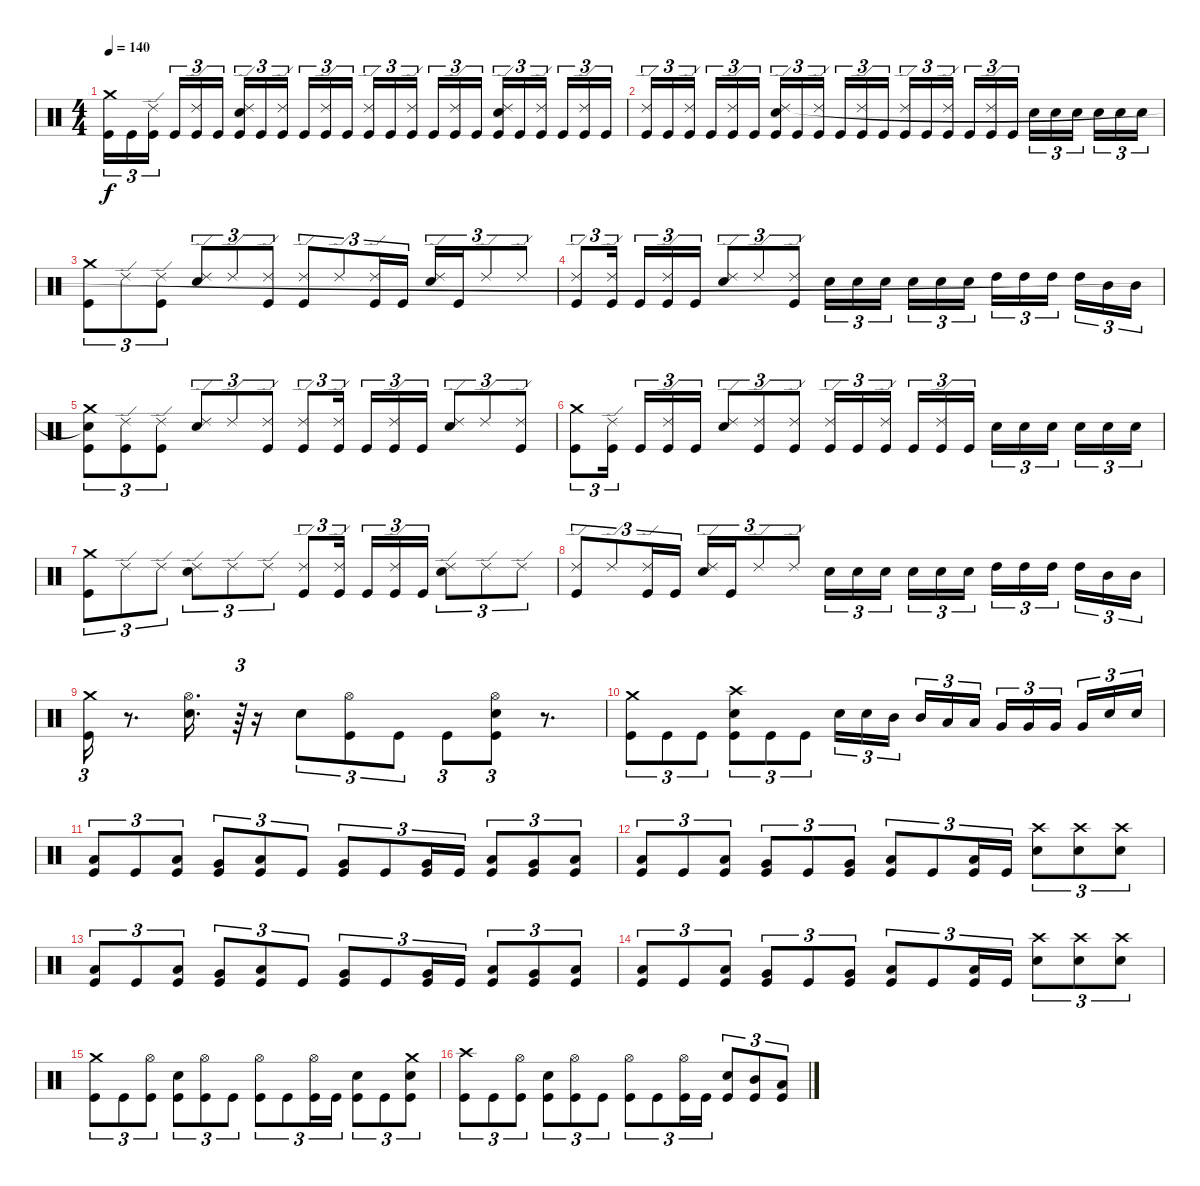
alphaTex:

\track "" {instrument percussion}
\staff {score}
\articulation defaults
\ts (4 4)
\tempo 140
\clef neutral
\ks c
("Crash medium (hit)" "Kick (hit)").16{tu (3 2) dy f} "Kick (hit)".16{tu (3 2)} ("Ride (edge) 2" "Kick (hit)").16{tu (3 2) beam splitsecondary} "Kick (hit)".16{tu (3 2)} ("Ride (edge) 2" "Kick (hit)").16{tu (3 2)} "Kick (hit)".16{tu (3 2)} ("Snare (hit) 2" "Ride (edge) 2" "Kick (hit)").16{tu (3 2)} "Kick (hit)".16{tu (3 2)} ("Ride (edge) 2" "Kick (hit)").16{tu (3 2) beam splitsecondary} "Kick (hit)".16{tu (3 2)} ("Ride (edge) 2" "Kick (hit)").16{tu (3 2)} "Kick (hit)".16{tu (3 2)} ("Ride (edge) 2" "Kick (hit)").16{tu (3 2)} "Kick (hit)".16{tu (3 2)} ("Ride (edge) 2" "Kick (hit)").16{tu (3 2) beam splitsecondary} "Kick (hit)".16{tu (3 2)} ("Ride (edge) 2" "Kick (hit)").16{tu (3 2)} "Kick (hit)".16{tu (3 2)} ("Ride (edge) 2" "Snare (hit) 2" "Kick (hit)").16{tu (3 2)} "Kick (hit)".16{tu (3 2)} ("Ride (edge) 2" "Kick (hit)").16{tu (3 2) beam splitsecondary} "Kick (hit)".16{tu (3 2)} ("Ride (edge) 2" "Kick (hit)").16{tu (3 2)} "Kick (hit)".16{tu (3 2)} |
("Kick (hit)" "Ride (edge) 2").16{tu (3 2)} "Kick (hit)".16{tu (3 2)} ("Kick (hit)" "Ride (edge) 2").16{tu (3 2) beam splitsecondary} "Kick (hit)".16{tu (3 2)} ("Kick (hit)" "Ride (edge) 2").16{tu (3 2)} "Kick (hit)".16{tu (3 2)} ("Kick (hit)" "Snare (hit) 2" "Ride (edge) 2").16{tu (3 2)} "Kick (hit)".16{tu (3 2)} ("Kick (hit)" "Ride (edge) 2").16{tu (3 2) beam splitsecondary} "Kick (hit)".16{tu (3 2)} ("Kick (hit)" "Ride (edge) 2").16{tu (3 2)} "Kick (hit)".16{tu (3 2)} ("Kick (hit)" "Ride (edge) 2").16{tu (3 2)} "Kick (hit)".16{tu (3 2)} ("Kick (hit)" "Ride (edge) 2").16{tu (3 2) beam splitsecondary} "Kick (hit)".16{tu (3 2)} ("Kick (hit)" "Ride (edge) 2").16{tu (3 2)} "Kick (hit)".16{tu (3 2)} "Snare (hit) 2".16{tu (3 2)} "Snare (hit) 2".16{tu (3 2)} "Snare (hit) 2".16{tu (3 2) beam splitsecondary} "Snare (hit) 2".16{tu (3 2)} "Snare (hit) 2".16{tu (3 2)} "Snare (hit) 2".16{tu (3 2)} |
("Kick (hit)" "Crash medium (hit)").8{tu (3 2)} "Ride (edge) 2".8{tu (3 2)} ("Kick (hit)" "Ride (edge) 2").8{tu (3 2)} ("Snare (hit) 2" "Ride (edge) 2").8{tu (3 2)} "Ride (edge) 2".8{tu (3 2)} ("Kick (hit)" "Ride (edge) 2").8{tu (3 2)} ("Kick (hit)" "Ride (edge) 2").8{tu (3 2)} "Ride (edge) 2".8{tu (3 2)} ("Kick (hit)" "Ride (edge) 2").16{tu (3 2)} "Kick (hit)".16{tu (3 2)} ("Ride (edge) 2" "Snare (hit) 2").16{tu (3 2)} "Kick (hit)".16{tu (3 2)} "Ride (edge) 2".8{tu (3 2)} "Ride (edge) 2".8{tu (3 2)} |
("Kick (hit)" "Ride (edge) 2").8{tu (3 2)} ("Kick (hit)" "Ride (edge) 2").16{tu (3 2) beam splitsecondary} "Kick (hit)".16{tu (3 2)} ("Kick (hit)" "Ride (edge) 2").16{tu (3 2)} "Kick (hit)".16{tu (3 2)} ("Snare (hit) 2" "Ride (edge) 2").8{tu (3 2)} "Ride (edge) 2".8{tu (3 2)} ("Kick (hit)" "Ride (edge) 2").8{tu (3 2)} "Snare (hit) 2".16{tu (3 2)} "Snare (hit) 2".16{tu (3 2)} "Snare (hit) 2".16{tu (3 2) beam splitsecondary} "Snare (hit) 2".16{tu (3 2)} "Snare (hit) 2".16{tu (3 2)} "Snare (hit) 2".16{tu (3 2)} "High Tom (hit)".16{tu (3 2)} "High Tom (hit)".16{tu (3 2)} "High Tom (hit)".16{tu (3 2) beam splitsecondary} "High Tom (hit)".16{tu (3 2)} "Mid Tom (hit)".16{tu (3 2)} "Mid Tom (hit)".16{tu (3 2)} |
("Crash medium (hit)" "Kick (hit)" "Snare (hit)"{t}).8{tu (3 2)} ("Ride (edge) 2" "Kick (hit)").8{tu (3 2)} ("Ride (edge) 2" "Kick (hit)").8{tu (3 2)} ("Snare (hit) 2" "Ride (edge) 2").8{tu (3 2)} "Ride (edge) 2".8{tu (3 2)} ("Ride (edge) 2" "Kick (hit)").8{tu (3 2)} ("Ride (edge) 2" "Kick (hit)").8{tu (3 2)} ("Ride (edge) 2" "Kick (hit)").16{tu (3 2) beam splitsecondary} "Kick (hit)".16{tu (3 2)} ("Ride (edge) 2" "Kick (hit)").16{tu (3 2)} "Kick (hit)".16{tu (3 2)} ("Ride (edge) 2" "Snare (hit) 2").8{tu (3 2)} "Ride (edge) 2".8{tu (3 2)} ("Ride (edge) 2" "Kick (hit)").8{tu (3 2)} |
("Kick (hit)" "Crash medium (hit)").8{tu (3 2)} ("Kick (hit)" "Ride (edge) 2").16{tu (3 2) beam splitsecondary} "Kick (hit)".16{tu (3 2)} ("Kick (hit)" "Ride (edge) 2").16{tu (3 2)} "Kick (hit)".16{tu (3 2)} ("Snare (hit) 2" "Ride (edge) 2").8{tu (3 2)} ("Kick (hit)" "Ride (edge) 2").8{tu (3 2)} ("Kick (hit)" "Ride (edge) 2").8{tu (3 2)} ("Kick (hit)" "Ride (edge) 2").16{tu (3 2)} "Kick (hit)".16{tu (3 2)} ("Kick (hit)" "Ride (edge) 2").16{tu (3 2) beam splitsecondary} "Kick (hit)".16{tu (3 2)} ("Kick (hit)" "Ride (edge) 2").16{tu (3 2)} "Kick (hit)".16{tu (3 2)} "Snare (hit) 2".16{tu (3 2)} "Snare (hit) 2".16{tu (3 2)} "Snare (hit) 2".16{tu (3 2) beam splitsecondary} "Snare (hit) 2".16{tu (3 2)} "Snare (hit) 2".16{tu (3 2)} "Snare (hit) 2".16{tu (3 2)} |
("Kick (hit)" "Crash medium (hit)").8{tu (3 2)} "Ride (edge) 2".8{tu (3 2)} "Ride (edge) 2".8{tu (3 2)} ("Snare (hit) 2" "Ride (edge) 2").8{tu (3 2)} "Ride (edge) 2".8{tu (3 2)} "Ride (edge) 2".8{tu (3 2)} ("Kick (hit)" "Ride (edge) 2").8{tu (3 2)} ("Kick (hit)" "Ride (edge) 2").16{tu (3 2) beam splitsecondary} "Kick (hit)".16{tu (3 2)} ("Kick (hit)" "Ride (edge) 2").16{tu (3 2)} "Kick (hit)".16{tu (3 2)} ("Ride (edge) 2" "Snare (hit) 2").8{tu (3 2)} "Ride (edge) 2".8{tu (3 2)} "Ride (edge) 2".8{tu (3 2)} |
("Kick (hit)" "Ride (edge) 2").8{tu (3 2)} "Ride (edge) 2".8{tu (3 2)} ("Kick (hit)" "Ride (edge) 2").16{tu (3 2)} "Kick (hit)".16{tu (3 2)} ("Snare (hit) 2" "Ride (edge) 2").16{tu (3 2)} "Kick (hit)".16{tu (3 2)} "Ride (edge) 2".8{tu (3 2)} "Ride (edge) 2".8{tu (3 2)} "Snare (hit) 2".16{tu (3 2)} "Snare (hit) 2".16{tu (3 2)} "Snare (hit) 2".16{tu (3 2) beam splitsecondary} "Snare (hit) 2".16{tu (3 2)} "Snare (hit) 2".16{tu (3 2)} "Snare (hit) 2".16{tu (3 2)} "High Tom (hit)".16{tu (3 2)} "High Tom (hit)".16{tu (3 2)} "High Tom (hit)".16{tu (3 2) beam splitsecondary} "High Tom (hit)".16{tu (3 2)} "Mid Tom (hit)".16{tu (3 2)} "Mid Tom (hit)".16{tu (3 2)} |
("Crash medium (hit)" "Kick (hit)").16{tu (3 2)} r.8{d} ("Snare (hit) 2" "Hi-Hat (open)").16{d} r.64{tu (3 2)} r.16 "Snare (hit) 2".8{tu (3 2)} ("Kick (hit)" "Hi-Hat (open)").8{tu (3 2)} "Kick (hit)".8{tu (3 2)} "Kick (hit)".8{tu (3 2)} ("Kick (hit)" "Snare (hit) 2" "Hi-Hat (open)").8{tu (3 2)} r.8{d} |
("Kick (hit)" "Crash medium (hit)").8{tu (3 2)} "Kick (hit)".8{tu (3 2)} "Kick (hit)".8{tu (3 2)} ("Snare (hit) 2" "Kick (hit)" "Crash high (hit)").8{tu (3 2)} "Kick (hit)".8{tu (3 2)} "Kick (hit)".8{tu (3 2)} "Snare (hit) 2".16{tu (3 2)} "Snare (hit) 2".16{tu (3 2)} "Mid Tom (hit)".16{tu (3 2) beam splitsecondary} "Mid Tom (hit)".16{tu (3 2)} "Low Tom (hit)".16{tu (3 2)} "Low Tom (hit)".16{tu (3 2)} "Very Low Tom (hit)".16{tu (3 2)} "Very Low Tom (hit)".16{tu (3 2)} "Very Low Tom (hit)".16{tu (3 2) beam splitsecondary} "Very Low Tom (hit)".16{tu (3 2)} "Snare (hit) 2".16{tu (3 2)} "Snare (hit) 2".16{tu (3 2)} |
("Low Tom (hit)" "Kick (hit)").8{tu (3 2)} "Kick (hit)".8{tu (3 2)} ("Low Tom (hit)" "Kick (hit)").8{tu (3 2)} ("Very Low Tom (hit)" "Kick (hit)").8{tu (3 2)} ("Low Tom (hit)" "Kick (hit)").8{tu (3 2)} "Kick (hit)".8{tu (3 2)} ("Very Low Tom (hit)" "Kick (hit)").8{tu (3 2)} "Kick (hit)".8{tu (3 2)} ("Very Low Tom (hit)" "Kick (hit)").16{tu (3 2)} "Kick (hit)".16{tu (3 2)} ("Low Floor Tom (hit)" "Kick (hit)").8{tu (3 2)} ("Kick (hit)" "Very Low Tom (hit)").8{tu (3 2)} ("Kick (hit)" "Low Floor Tom (hit)").8{tu (3 2)} |
("Low Tom (hit)" "Kick (hit)").8{tu (3 2)} "Kick (hit)".8{tu (3 2)} ("Kick (hit)" "Low Tom (hit)").8{tu (3 2)} ("Very Low Tom (hit)" "Kick (hit)").8{tu (3 2)} "Kick (hit)".8{tu (3 2)} ("Very Low Tom (hit)" "Kick (hit)").8{tu (3 2)} ("Low Floor Tom (hit)" "Kick (hit)").8{tu (3 2)} "Kick (hit)".8{tu (3 2)} ("Low Floor Tom (hit)" "Kick (hit)").16{tu (3 2)} "Kick (hit)".16{tu (3 2)} ("Snare (hit) 2" "Crash high (hit)").8{tu (3 2)} ("Snare (hit) 2" "Crash high (hit)").8{tu (3 2)} ("Snare (hit) 2" "Crash high (hit)").8{tu (3 2)} |
("Low Tom (hit)" "Kick (hit)").8{tu (3 2)} "Kick (hit)".8{tu (3 2)} ("Low Tom (hit)" "Kick (hit)").8{tu (3 2)} ("Very Low Tom (hit)" "Kick (hit)").8{tu (3 2)} ("Low Tom (hit)" "Kick (hit)").8{tu (3 2)} "Kick (hit)".8{tu (3 2)} ("Very Low Tom (hit)" "Kick (hit)").8{tu (3 2)} "Kick (hit)".8{tu (3 2)} ("Very Low Tom (hit)" "Kick (hit)").16{tu (3 2)} "Kick (hit)".16{tu (3 2)} ("Low Floor Tom (hit)" "Kick (hit)").8{tu (3 2)} ("Kick (hit)" "Very Low Tom (hit)").8{tu (3 2)} ("Kick (hit)" "Low Floor Tom (hit)").8{tu (3 2)} |
("Low Tom (hit)" "Kick (hit)").8{tu (3 2)} "Kick (hit)".8{tu (3 2)} ("Kick (hit)" "Low Tom (hit)").8{tu (3 2)} ("Very Low Tom (hit)" "Kick (hit)").8{tu (3 2)} "Kick (hit)".8{tu (3 2)} ("Very Low Tom (hit)" "Kick (hit)").8{tu (3 2)} ("Low Floor Tom (hit)" "Kick (hit)").8{tu (3 2)} "Kick (hit)".8{tu (3 2)} ("Low Floor Tom (hit)" "Kick (hit)").16{tu (3 2)} "Kick (hit)".16{tu (3 2)} ("Snare (hit) 2" "Crash high (hit)").8{tu (3 2)} ("Snare (hit) 2" "Crash high (hit)").8{tu (3 2)} ("Snare (hit) 2" "Crash high (hit)").8{tu (3 2)} |
("Crash medium (hit)" "Kick (hit)").8{tu (3 2)} "Kick (hit)".8{tu (3 2)} ("Hi-Hat (open)" "Kick (hit)").8{tu (3 2)} ("Snare (hit) 2" "Kick (hit)").8{tu (3 2)} ("Hi-Hat (open)" "Kick (hit)").8{tu (3 2)} "Kick (hit)".8{tu (3 2)} ("Hi-Hat (open)" "Kick (hit)").8{tu (3 2)} "Kick (hit)".8{tu (3 2)} ("Hi-Hat (open)" "Kick (hit)").16{tu (3 2)} "Kick (hit)".16{tu (3 2)} ("Snare (hit) 2" "Kick (hit)").8{tu (3 2)} "Kick (hit)".8{tu (3 2)} ("Snare (hit) 2" "Crash medium (hit)" "Kick (hit)").8{tu (3 2)} |
("Crash high (hit)" "Kick (hit)").8{tu (3 2)} "Kick (hit)".8{tu (3 2)} ("Kick (hit)" "Hi-Hat (open)").8{tu (3 2)} ("Kick (hit)" "Snare (hit) 2").8{tu (3 2)} ("Kick (hit)" "Hi-Hat (open)").8{tu (3 2)} "Kick (hit)".8{tu (3 2)} ("Hi-Hat (open)" "Kick (hit)").8{tu (3 2)} "Kick (hit)".8{tu (3 2)} ("Hi-Hat (open)" "Kick (hit)").16{tu (3 2)} "Kick (hit)".16{tu (3 2)} ("Kick (hit)" "Snare (hit) 2").8{tu (3 2)} ("Kick (hit)" "Mid Tom (hit)").8{tu (3 2)} ("Kick (hit)" "Low Tom (hit)").8{tu (3 2)}
